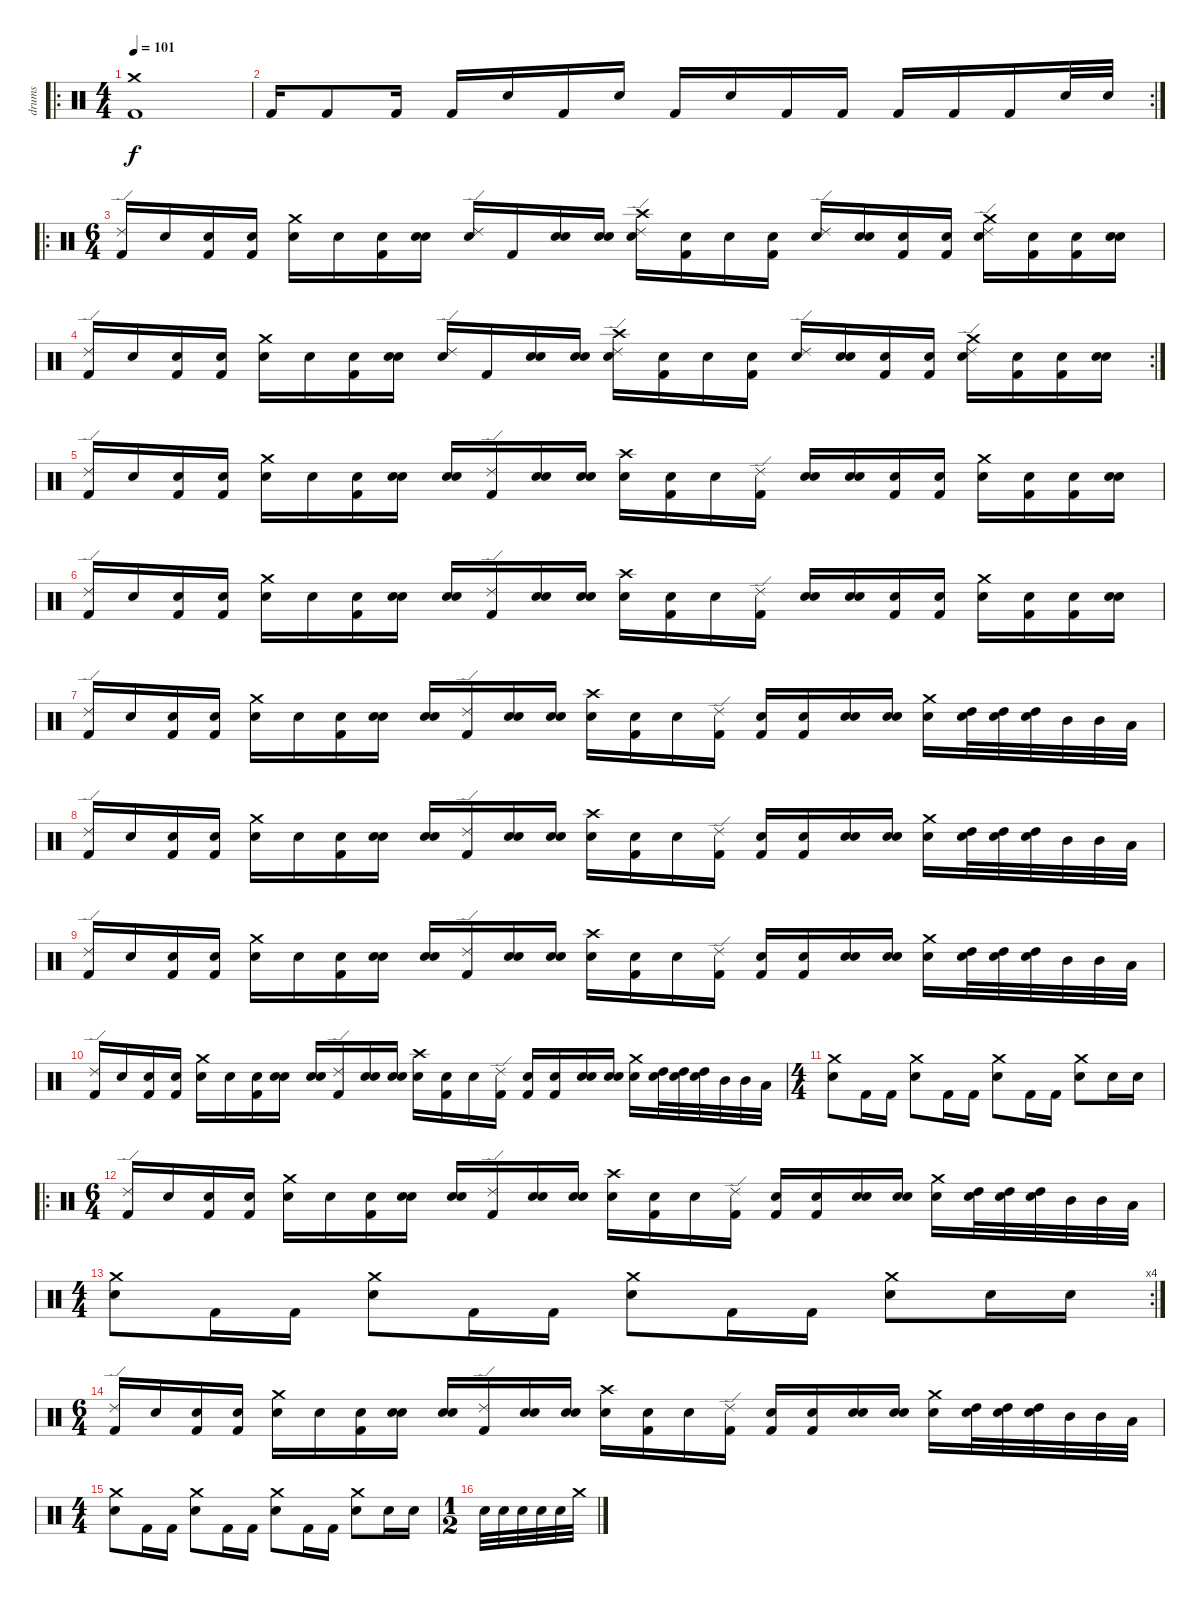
\track ("drums" "drums") {instrument percussion}
\staff {score}
\articulation defaults
\ro
\ts (4 4)
\tempo 101
\clef neutral
\ks c
("Crash medium (hit)" "Kick (hit) 2").1{dy f} |
\rc 2 "Kick (hit) 2".16 "Kick (hit) 2".8 "Kick (hit) 2".16 "Kick (hit) 2".16 "Electric Snare (hit)".16 "Kick (hit) 2".16 "Snare (hit)".16 "Kick (hit) 2".16 "Snare (hit)".16 "Kick (hit) 2".16 "Kick (hit) 2".16 "Kick (hit) 2".16 "Kick (hit) 2".16 "Kick (hit) 2".16 "Electric Snare (hit)".32 "Electric Snare (hit)".32
|
\ro
\ts (6 4)
("Ride (edge) 2" "Kick (hit) 2").16 "Snare (hit)".16 ("Snare (hit)" "Kick (hit) 2").16 ("Snare (hit)" "Kick (hit) 2").16 ("Crash medium (hit)" "Electric Snare (hit)").16 "Snare (hit)".16 ("Snare (hit)" "Kick (hit) 2").16 ("Snare (hit)" "Snare (hit)").16 ("Ride (edge) 2" "Snare (hit)").16 "Kick (hit) 2".16 ("Snare (hit)" "Snare (hit)").16 ("Snare (hit)" "Snare (hit)").16 ("Crash high (hit)" "Electric Snare (hit)" "Ride (edge) 2").16 ("Snare (hit)" "Kick (hit) 2").16 "Snare (hit)".16 ("Snare (hit)" "Kick (hit) 2").16 ("Snare (hit)" "Ride (edge) 2").16 ("Snare (hit)" "Snare (hit)").16 ("Snare (hit)" "Kick (hit) 2").16 ("Snare (hit)" "Kick (hit) 2").16 ("Crash medium (hit)" "Electric Snare (hit)" "Ride (edge) 2").16 ("Snare (hit)" "Kick (hit) 2").16 ("Snare (hit)" "Kick (hit) 2").16 ("Snare (hit)" "Snare (hit)").16 |
\rc 2
("Ride (edge) 2" "Kick (hit) 2").16 "Snare (hit)".16 ("Snare (hit)" "Kick (hit) 2").16 ("Snare (hit)" "Kick (hit) 2").16 ("Crash medium (hit)" "Electric Snare (hit)").16 "Snare (hit)".16 ("Snare (hit)" "Kick (hit) 2").16 ("Snare (hit)" "Snare (hit)").16 ("Ride (edge) 2" "Snare (hit)").16 "Kick (hit) 2".16 ("Snare (hit)" "Snare (hit)").16 ("Snare (hit)" "Snare (hit)").16 ("Crash high (hit)" "Electric Snare (hit)" "Ride (edge) 2").16 ("Snare (hit)" "Kick (hit) 2").16 "Snare (hit)".16 ("Snare (hit)" "Kick (hit) 2").16 ("Snare (hit)" "Ride (edge) 2").16 ("Snare (hit)" "Snare (hit)").16 ("Snare (hit)" "Kick (hit) 2").16 ("Snare (hit)" "Kick (hit) 2").16 ("Crash medium (hit)" "Electric Snare (hit)" "Ride (edge) 2").16 ("Snare (hit)" "Kick (hit) 2").16 ("Snare (hit)" "Kick (hit) 2").16 ("Snare (hit)" "Snare (hit)").16 |
("Ride (edge) 2" "Kick (hit) 2").16 "Snare (hit)".16 ("Snare (hit)" "Kick (hit) 2").16 ("Snare (hit)" "Kick (hit) 2").16 ("Crash medium (hit)" "Electric Snare (hit)").16 "Snare (hit)".16 ("Snare (hit)" "Kick (hit) 2").16 ("Snare (hit)" "Snare (hit)").16 ("Snare (hit)" "Snare (hit)").16 ("Ride (edge) 2" "Kick (hit) 2").16 ("Snare (hit)" "Snare (hit)").16 ("Snare (hit)" "Snare (hit)").16 ("Crash high (hit)" "Electric Snare (hit)").16 ("Snare (hit)" "Kick (hit) 2").16 "Snare (hit)".16 ("Ride (edge) 2" "Kick (hit) 2").16 ("Snare (hit)" "Snare (hit)").16 ("Snare (hit)" "Snare (hit)").16 ("Snare (hit)" "Kick (hit) 2").16 ("Snare (hit)" "Kick (hit) 2").16 ("Crash medium (hit)" "Electric Snare (hit)").16 ("Snare (hit)" "Kick (hit) 2").16 ("Snare (hit)" "Kick (hit) 2").16 ("Snare (hit)" "Snare (hit)").16 |
("Ride (edge) 2" "Kick (hit) 2").16 "Snare (hit)".16 ("Snare (hit)" "Kick (hit) 2").16 ("Snare (hit)" "Kick (hit) 2").16 ("Crash medium (hit)" "Electric Snare (hit)").16 "Snare (hit)".16 ("Snare (hit)" "Kick (hit) 2").16 ("Snare (hit)" "Snare (hit)").16 ("Snare (hit)" "Snare (hit)").16 ("Ride (edge) 2" "Kick (hit) 2").16 ("Snare (hit)" "Snare (hit)").16 ("Snare (hit)" "Snare (hit)").16 ("Crash high (hit)" "Electric Snare (hit)").16 ("Snare (hit)" "Kick (hit) 2").16 "Snare (hit)".16 ("Ride (edge) 2" "Kick (hit) 2").16 ("Snare (hit)" "Snare (hit)").16 ("Snare (hit)" "Snare (hit)").16 ("Snare (hit)" "Kick (hit) 2").16 ("Snare (hit)" "Kick (hit) 2").16 ("Crash medium (hit)" "Electric Snare (hit)").16 ("Snare (hit)" "Kick (hit) 2").16 ("Snare (hit)" "Kick (hit) 2").16 ("Snare (hit)" "Snare (hit)").16 |
("Ride (edge) 2" "Kick (hit) 2").16 "Snare (hit)".16 ("Snare (hit)" "Kick (hit) 2").16 ("Snare (hit)" "Kick (hit) 2").16 ("Crash medium (hit)" "Electric Snare (hit)").16 "Snare (hit)".16 ("Snare (hit)" "Kick (hit) 2").16 ("Snare (hit)" "Snare (hit)").16 ("Snare (hit)" "Snare (hit)").16 ("Ride (edge) 2" "Kick (hit) 2").16 ("Snare (hit)" "Snare (hit)").16 ("Snare (hit)" "Snare (hit)").16 ("Crash high (hit)" "Electric Snare (hit)").16 ("Snare (hit)" "Kick (hit) 2").16 "Snare (hit)".16 ("Ride (edge) 2" "Kick (hit) 2").16 ("Snare (hit)" "Kick (hit) 2").16 ("Snare (hit)" "Kick (hit) 2").16 ("Snare (hit)" "Electric Snare (hit)").16 ("Snare (hit)" "Electric Snare (hit)").16 ("Crash medium (hit)" "Electric Snare (hit)").16 ("Snare (hit)" "High Tom (hit)").32 ("Snare (hit)" "High Tom (hit)").32 ("Snare (hit)" "High Tom (hit)").32 "Mid Tom (hit)".32 "Mid Tom (hit)".32 "Low Tom (hit)".32 |
("Ride (edge) 2" "Kick (hit) 2").16 "Snare (hit)".16 ("Snare (hit)" "Kick (hit) 2").16 ("Snare (hit)" "Kick (hit) 2").16 ("Crash medium (hit)" "Electric Snare (hit)").16 "Snare (hit)".16 ("Snare (hit)" "Kick (hit) 2").16 ("Snare (hit)" "Snare (hit)").16 ("Snare (hit)" "Snare (hit)").16 ("Ride (edge) 2" "Kick (hit) 2").16 ("Snare (hit)" "Snare (hit)").16 ("Snare (hit)" "Snare (hit)").16 ("Crash high (hit)" "Electric Snare (hit)").16 ("Snare (hit)" "Kick (hit) 2").16 "Snare (hit)".16 ("Ride (edge) 2" "Kick (hit) 2").16 ("Snare (hit)" "Kick (hit) 2").16 ("Snare (hit)" "Kick (hit) 2").16 ("Snare (hit)" "Electric Snare (hit)").16 ("Snare (hit)" "Electric Snare (hit)").16 ("Crash medium (hit)" "Electric Snare (hit)").16 ("Snare (hit)" "High Tom (hit)").32 ("Snare (hit)" "High Tom (hit)").32 ("Snare (hit)" "High Tom (hit)").32 "Mid Tom (hit)".32 "Mid Tom (hit)".32 "Low Tom (hit)".32 |
("Ride (edge) 2" "Kick (hit) 2").16 "Snare (hit)".16 ("Snare (hit)" "Kick (hit) 2").16 ("Snare (hit)" "Kick (hit) 2").16 ("Crash medium (hit)" "Electric Snare (hit)").16 "Snare (hit)".16 ("Snare (hit)" "Kick (hit) 2").16 ("Snare (hit)" "Snare (hit)").16 ("Snare (hit)" "Snare (hit)").16 ("Ride (edge) 2" "Kick (hit) 2").16 ("Snare (hit)" "Snare (hit)").16 ("Snare (hit)" "Snare (hit)").16 ("Crash high (hit)" "Electric Snare (hit)").16 ("Snare (hit)" "Kick (hit) 2").16 "Snare (hit)".16 ("Ride (edge) 2" "Kick (hit) 2").16 ("Snare (hit)" "Kick (hit) 2").16 ("Snare (hit)" "Kick (hit) 2").16 ("Snare (hit)" "Electric Snare (hit)").16 ("Snare (hit)" "Electric Snare (hit)").16 ("Crash medium (hit)" "Electric Snare (hit)").16 ("Snare (hit)" "High Tom (hit)").32 ("Snare (hit)" "High Tom (hit)").32 ("Snare (hit)" "High Tom (hit)").32 "Mid Tom (hit)".32 "Mid Tom (hit)".32 "Low Tom (hit)".32 |
("Ride (edge) 2" "Kick (hit) 2").16 "Snare (hit)".16 ("Snare (hit)" "Kick (hit) 2").16 ("Snare (hit)" "Kick (hit) 2").16 ("Crash medium (hit)" "Electric Snare (hit)").16 "Snare (hit)".16 ("Snare (hit)" "Kick (hit) 2").16 ("Snare (hit)" "Snare (hit)").16 ("Snare (hit)" "Snare (hit)").16 ("Ride (edge) 2" "Kick (hit) 2").16 ("Snare (hit)" "Snare (hit)").16 ("Snare (hit)" "Snare (hit)").16 ("Crash high (hit)" "Electric Snare (hit)").16 ("Snare (hit)" "Kick (hit) 2").16 "Snare (hit)".16 ("Ride (edge) 2" "Kick (hit) 2").16 ("Snare (hit)" "Kick (hit) 2").16 ("Snare (hit)" "Kick (hit) 2").16 ("Snare (hit)" "Electric Snare (hit)").16 ("Snare (hit)" "Electric Snare (hit)").16 ("Crash medium (hit)" "Electric Snare (hit)").16 ("Snare (hit)" "High Tom (hit)").32 ("Snare (hit)" "High Tom (hit)").32 ("Snare (hit)" "High Tom (hit)").32 "Mid Tom (hit)".32 "Mid Tom (hit)".32 "Low Tom (hit)".32 |
\ts (4 4)
("Crash medium (hit)" "Electric Snare (hit)").8 "Kick (hit) 2".16 "Kick (hit) 2".16 ("Crash medium (hit)" "Electric Snare (hit)").8 "Kick (hit) 2".16 "Kick (hit) 2".16 ("Crash medium (hit)" "Electric Snare (hit)").8 "Kick (hit) 2".16 "Kick (hit) 2".16 ("Crash medium (hit)" "Electric Snare (hit)").8 "Electric Snare (hit)".16 "Electric Snare (hit)".16 |
\ro
\ts (6 4)
("Ride (edge) 2" "Kick (hit) 2").16 "Snare (hit)".16 ("Snare (hit)" "Kick (hit) 2").16 ("Snare (hit)" "Kick (hit) 2").16 ("Crash medium (hit)" "Electric Snare (hit)").16 "Snare (hit)".16 ("Snare (hit)" "Kick (hit) 2").16 ("Snare (hit)" "Snare (hit)").16 ("Snare (hit)" "Snare (hit)").16 ("Ride (edge) 2" "Kick (hit) 2").16 ("Snare (hit)" "Snare (hit)").16 ("Snare (hit)" "Snare (hit)").16 ("Crash high (hit)" "Electric Snare (hit)").16 ("Snare (hit)" "Kick (hit) 2").16 "Snare (hit)".16 ("Ride (edge) 2" "Kick (hit) 2").16 ("Snare (hit)" "Kick (hit) 2").16 ("Snare (hit)" "Kick (hit) 2").16 ("Snare (hit)" "Electric Snare (hit)").16 ("Snare (hit)" "Electric Snare (hit)").16 ("Crash medium (hit)" "Electric Snare (hit)").16 ("Snare (hit)" "High Tom (hit)").32 ("Snare (hit)" "High Tom (hit)").32 ("Snare (hit)" "High Tom (hit)").32 "Mid Tom (hit)".32 "Mid Tom (hit)".32 "Low Tom (hit)".32 |
\rc 4
\ts (4 4)
("Crash medium (hit)" "Electric Snare (hit)").8 "Kick (hit) 2".16 "Kick (hit) 2".16 ("Crash medium (hit)" "Electric Snare (hit)").8 "Kick (hit) 2".16 "Kick (hit) 2".16 ("Crash medium (hit)" "Electric Snare (hit)").8 "Kick (hit) 2".16 "Kick (hit) 2".16 ("Crash medium (hit)" "Electric Snare (hit)").8 "Electric Snare (hit)".16 "Electric Snare (hit)".16 |
\ts (6 4)
("Ride (edge) 2" "Kick (hit) 2").16 "Snare (hit)".16 ("Snare (hit)" "Kick (hit) 2").16 ("Snare (hit)" "Kick (hit) 2").16 ("Crash medium (hit)" "Electric Snare (hit)").16 "Snare (hit)".16 ("Snare (hit)" "Kick (hit) 2").16 ("Snare (hit)" "Snare (hit)").16 ("Snare (hit)" "Snare (hit)").16 ("Ride (edge) 2" "Kick (hit) 2").16 ("Snare (hit)" "Snare (hit)").16 ("Snare (hit)" "Snare (hit)").16 ("Crash high (hit)" "Electric Snare (hit)").16 ("Snare (hit)" "Kick (hit) 2").16 "Snare (hit)".16 ("Ride (edge) 2" "Kick (hit) 2").16 ("Snare (hit)" "Kick (hit) 2").16 ("Snare (hit)" "Kick (hit) 2").16 ("Snare (hit)" "Electric Snare (hit)").16 ("Snare (hit)" "Electric Snare (hit)").16 ("Crash medium (hit)" "Electric Snare (hit)").16 ("Snare (hit)" "High Tom (hit)").32 ("Snare (hit)" "High Tom (hit)").32 ("Snare (hit)" "High Tom (hit)").32 "Mid Tom (hit)".32 "Mid Tom (hit)".32 "Low Tom (hit)".32 |
\ts (4 4)
("Crash medium (hit)" "Electric Snare (hit)").8 "Kick (hit) 2".16 "Kick (hit) 2".16 ("Crash medium (hit)" "Electric Snare (hit)").8 "Kick (hit) 2".16 "Kick (hit) 2".16 ("Crash medium (hit)" "Electric Snare (hit)").8 "Kick (hit) 2".16 "Kick (hit) 2".16 ("Crash medium (hit)" "Electric Snare (hit)").8 "Electric Snare (hit)".16 "Electric Snare (hit)".16 |
\ts (1 2)
"Electric Snare (hit)".32 "Electric Snare (hit)".32 "Electric Snare (hit)".32 "Electric Snare (hit)".32 "Electric Snare (hit)".32 "Crash medium (hit)".32
